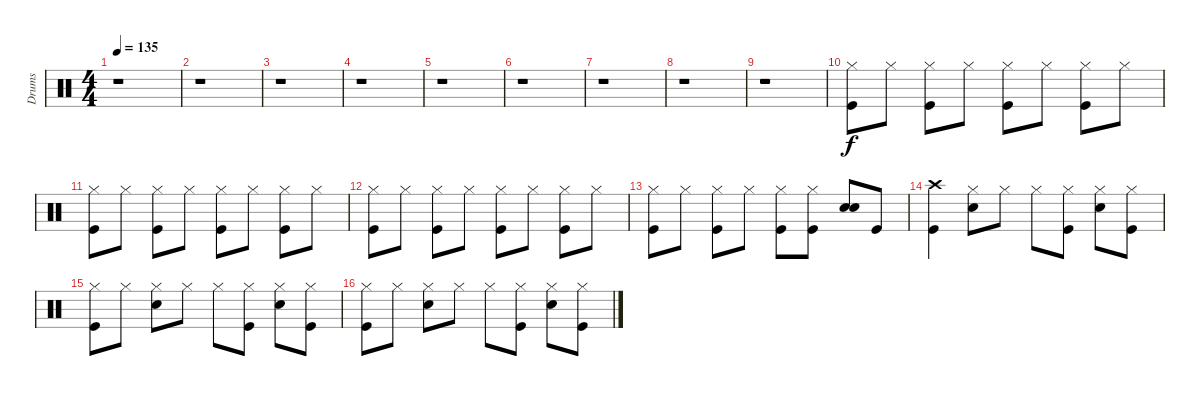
\track ("Drums" "Drums") {instrument percussion}
\staff {score}
\articulation defaults
\ts (4 4)
\tempo 135
\clef neutral
\ks c
r.1{dy f} |
r.1 |
r.1 |
r.1 |
r.1 |
r.1 |
r.1 |
r.1 |
r.1 |
("Kick (hit)" "Hi-Hat (closed)").8 "Hi-Hat (closed)".8 ("Kick (hit)" "Hi-Hat (closed)").8 "Hi-Hat (closed)".8 ("Kick (hit)" "Hi-Hat (closed)").8 "Hi-Hat (closed)".8 ("Kick (hit)" "Hi-Hat (closed)").8 "Hi-Hat (closed)".8 |
("Kick (hit)" "Hi-Hat (closed)").8 "Hi-Hat (closed)".8 ("Kick (hit)" "Hi-Hat (closed)").8 "Hi-Hat (closed)".8 ("Kick (hit)" "Hi-Hat (closed)").8 "Hi-Hat (closed)".8 ("Kick (hit)" "Hi-Hat (closed)").8 "Hi-Hat (closed)".8 |
("Kick (hit)" "Hi-Hat (closed)").8 "Hi-Hat (closed)".8 ("Kick (hit)" "Hi-Hat (closed)").8 "Hi-Hat (closed)".8 ("Kick (hit)" "Hi-Hat (closed)").8 "Hi-Hat (closed)".8 ("Kick (hit)" "Hi-Hat (closed)").8 "Hi-Hat (closed)".8 |
("Kick (hit)" "Hi-Hat (closed)").8 "Hi-Hat (closed)".8 ("Kick (hit)" "Hi-Hat (closed)").8 "Hi-Hat (closed)".8 ("Kick (hit)" "Hi-Hat (closed)").8 ("Kick (hit)" "Hi-Hat (closed)").8 ("Snare (hit)" "Electric Snare (hit)").8 "Kick (hit)".8 |
("Kick (hit)" "Crash high (hit)").4 ("Electric Snare (hit)" "Hi-Hat (closed)").8 "Hi-Hat (closed)".8 "Hi-Hat (closed)".8 ("Kick (hit)" "Hi-Hat (closed)").8 ("Electric Snare (hit)" "Hi-Hat (closed)").8 ("Kick (hit)" "Hi-Hat (closed)").8 |
("Kick (hit)" "Hi-Hat (closed)").8 "Hi-Hat (closed)".8 ("Electric Snare (hit)" "Hi-Hat (closed)").8 "Hi-Hat (closed)".8 "Hi-Hat (closed)".8 ("Kick (hit)" "Hi-Hat (closed)").8 ("Electric Snare (hit)" "Hi-Hat (closed)").8 ("Kick (hit)" "Hi-Hat (closed)").8 |
("Kick (hit)" "Hi-Hat (closed)").8 "Hi-Hat (closed)".8 ("Electric Snare (hit)" "Hi-Hat (closed)").8 "Hi-Hat (closed)".8 "Hi-Hat (closed)".8 ("Kick (hit)" "Hi-Hat (closed)").8 ("Electric Snare (hit)" "Hi-Hat (closed)").8 ("Kick (hit)" "Hi-Hat (closed)").8
